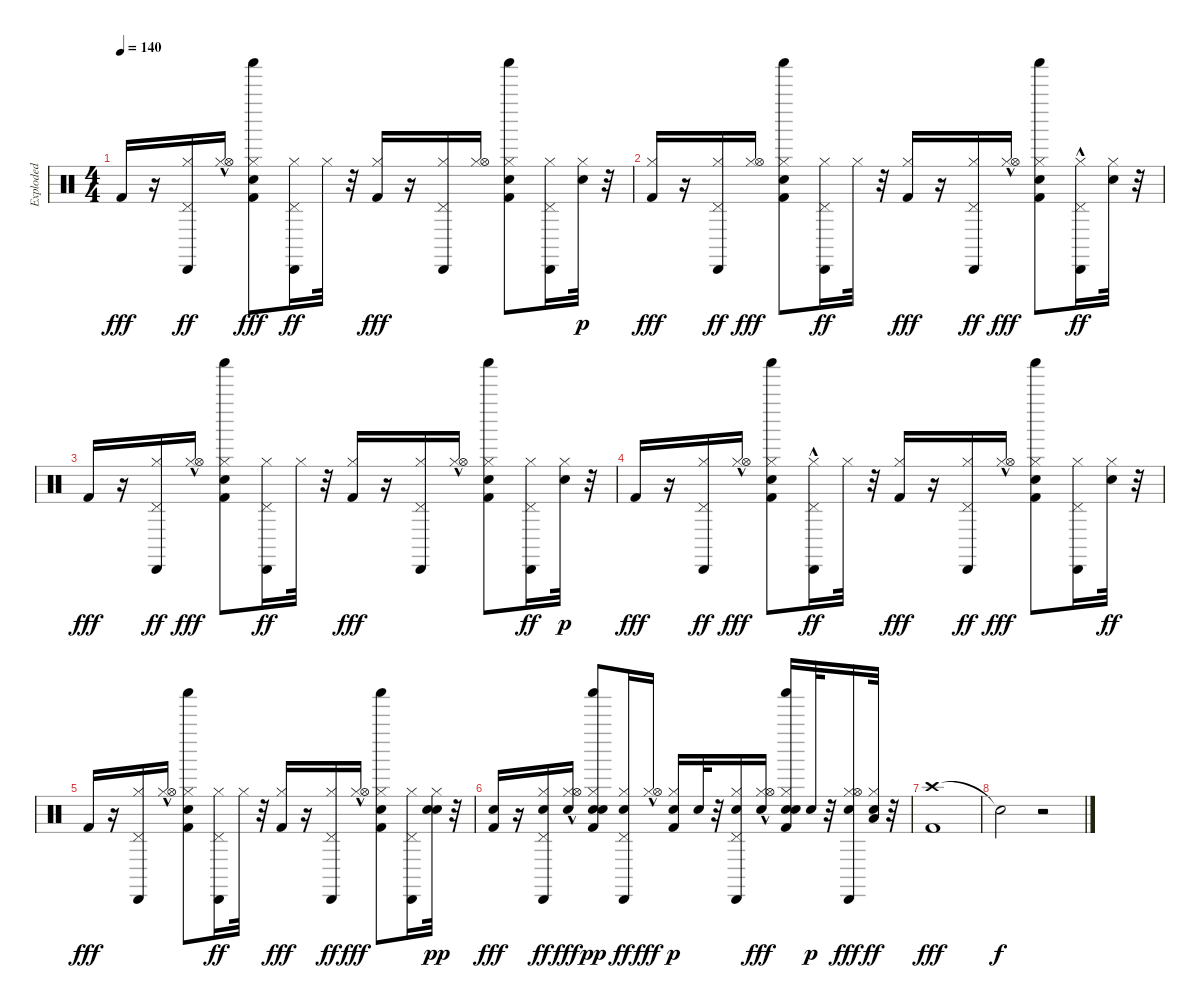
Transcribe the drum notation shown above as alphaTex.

\track ("Exploded" "Exploded") {instrument percussion}
\staff {score}
\articulation defaults
\ts (4 4)
\tempo 140
\clef neutral
\ks c "Kick (hit) 2".16{dy fff}
r.16 ("Cabasa (hit)" "Hi-Hat (closed)" "Pedal Hi-Hat (hit)").16{dy ff} ("Hi-Hat (closed)" "Hi-Hat (open)"{hac}).16 ("Hand Clap (hit)" "Shaker (hit)" "Hi-Hat (closed)" "Kick (hit) 2").8{dy fff} ("Cabasa (hit)" "Hi-Hat (closed)" "Pedal Hi-Hat (hit)").16{dy ff} "Hi-Hat (closed)".32 r.32 ("Hi-Hat (closed)" "Kick (hit) 2").16{dy fff} r.16 ("Cabasa (hit)" "Hi-Hat (closed)" "Pedal Hi-Hat (hit)").16 ("Hi-Hat (closed)" "Hi-Hat (open)").16 ("Hand Clap (hit)" "Shaker (hit)" "Hi-Hat (closed)" "Kick (hit) 2").8 ("Cabasa (hit)" "Hi-Hat (closed)" "Pedal Hi-Hat (hit)").16 ("Hi-Hat (closed)" "Snare (hit) 2").32{dy p} r.32 |
("Hi-Hat (closed)" "Kick (hit) 2").16{dy fff} r.16 ("Cabasa (hit)" "Hi-Hat (closed)" "Pedal Hi-Hat (hit)").16{dy ff} ("Hi-Hat (closed)" "Hi-Hat (open)").16{dy fff} ("Hand Clap (hit)" "Shaker (hit)" "Hi-Hat (closed)" "Kick (hit) 2").8 ("Cabasa (hit)" "Hi-Hat (closed)" "Pedal Hi-Hat (hit)").16{dy ff} "Hi-Hat (closed)".32 r.32 ("Hi-Hat (closed)" "Kick (hit) 2").16{dy fff} r.16 ("Cabasa (hit)" "Hi-Hat (closed)" "Pedal Hi-Hat (hit)").16{dy ff} ("Hi-Hat (closed)" "Hi-Hat (open)"{hac}).16{dy fff} ("Hand Clap (hit)" "Shaker (hit)" "Hi-Hat (closed)" "Kick (hit) 2").8 ("Cabasa (hit)"{hac} "Hi-Hat (closed)" "Pedal Hi-Hat (hit)").16{dy ff} ("Snare (hit) 2" "Hi-Hat (closed)").32 r.32 |
"Kick (hit) 2".16{dy fff} r.16 ("Cabasa (hit)" "Hi-Hat (closed)" "Pedal Hi-Hat (hit)").16{dy ff} ("Hi-Hat (closed)" "Hi-Hat (open)"{hac}).16{dy fff} ("Hand Clap (hit)" "Shaker (hit)" "Hi-Hat (closed)" "Kick (hit) 2").8 ("Cabasa (hit)" "Hi-Hat (closed)" "Pedal Hi-Hat (hit)").16{dy ff} "Hi-Hat (closed)".32 r.32 ("Hi-Hat (closed)" "Kick (hit) 2").16{dy fff} r.16 ("Cabasa (hit)" "Hi-Hat (closed)" "Pedal Hi-Hat (hit)").16 ("Hi-Hat (closed)" "Hi-Hat (open)"{hac}).16 ("Hand Clap (hit)" "Shaker (hit)" "Hi-Hat (closed)" "Kick (hit) 2").8 ("Cabasa (hit)" "Hi-Hat (closed)" "Pedal Hi-Hat (hit)").16{dy ff} ("Hi-Hat (closed)" "Snare (hit) 2").32{dy p} r.32 |
"Kick (hit) 2".16{dy fff} r.16 ("Cabasa (hit)" "Hi-Hat (closed)" "Pedal Hi-Hat (hit)").16{dy ff} ("Hi-Hat (closed)" "Hi-Hat (open)"{hac}).16{dy fff} ("Hand Clap (hit)" "Shaker (hit)" "Hi-Hat (closed)" "Kick (hit) 2").8 ("Cabasa (hit)" "Hi-Hat (closed)" "Pedal Hi-Hat (hit)"{hac}).16{dy ff} "Hi-Hat (closed)".32 r.32 ("Hi-Hat (closed)" "Kick (hit) 2").16{dy fff} r.16 ("Cabasa (hit)" "Hi-Hat (closed)" "Pedal Hi-Hat (hit)").16{dy ff} ("Hi-Hat (closed)" "Hi-Hat (open)"{hac}).16{dy fff} ("Hand Clap (hit)" "Shaker (hit)" "Hi-Hat (closed)" "Kick (hit) 2").8 ("Cabasa (hit)" "Hi-Hat (closed)" "Pedal Hi-Hat (hit)").16 ("Snare (hit) 2" "Hi-Hat (closed)").32{dy ff} r.32 |
"Kick (hit) 2".16{dy fff} r.16 ("Cabasa (hit)" "Hi-Hat (closed)" "Pedal Hi-Hat (hit)").16 ("Hi-Hat (closed)" "Hi-Hat (open)"{hac}).16 ("Hand Clap (hit)" "Shaker (hit)" "Hi-Hat (closed)" "Kick (hit) 2").8 ("Cabasa (hit)" "Hi-Hat (closed)" "Pedal Hi-Hat (hit)").16{dy ff} "Hi-Hat (closed)".32 r.32 ("Hi-Hat (closed)" "Kick (hit) 2").16{dy fff} r.16 ("Cabasa (hit)" "Hi-Hat (closed)" "Pedal Hi-Hat (hit)").16{dy ff} ("Hi-Hat (closed)" "Hi-Hat (open)"{hac}).16{dy fff} ("Hand Clap (hit)" "Shaker (hit)" "Hi-Hat (closed)" "Kick (hit) 2").8 ("Cabasa (hit)" "Hi-Hat (closed)" "Pedal Hi-Hat (hit)").16 ("Snare (hit) 2" "Hi-Hat (closed)" "Snare (hit) 2").32{dy pp} r.32 |
("Snare (hit) 2" "Kick (hit) 2").16{dy fff} r.16 ("Cabasa (hit)" "Hi-Hat (closed)" "Snare (hit) 2" "Pedal Hi-Hat (hit)").16{dy ff} ("Snare (hit) 2" "Hi-Hat (closed)" "Hi-Hat (open)"{hac}).16{dy fff} ("Hand Clap (hit)" "Shaker (hit)" "Hi-Hat (closed)" "Kick (hit) 2" "Snare (hit) 2").8{dy pp} ("Cabasa (hit)" "Hi-Hat (closed)" "Snare (hit) 2" "Pedal Hi-Hat (hit)").16{dy ff} ("Hi-Hat (closed)" "Hi-Hat (open)"{hac}).16{dy fff} ("Hi-Hat (closed)" "Kick (hit) 2" "Snare (hit) 2").16{dy p} "Snare (hit) 2".32 r.32 ("Cabasa (hit)" "Hi-Hat (closed)" "Snare (hit) 2" "Pedal Hi-Hat (hit)").16 ("Snare (hit) 2" "Hi-Hat (closed)" "Hi-Hat (open)"{hac}).16{dy fff} ("Snare (hit) 2" "Hand Clap (hit)" "Shaker (hit)" "Hi-Hat (closed)" "Kick (hit) 2").16 "Snare (hit) 2".32{dy p} r.32 ("Snare (hit) 2" "Cabasa (hit)" "Hi-Hat (closed)" "Hi-Hat (open)").16{dy fff} ("Low Floor Tom (hit)" "Snare (hit) 2" "Hi-Hat (closed)").32{dy ff} r.32 |
("Crash high (hit)" "Kick (hit) 2").1{dy fff} |
"Snare (hit)"{t}.2{dy f} r.2
